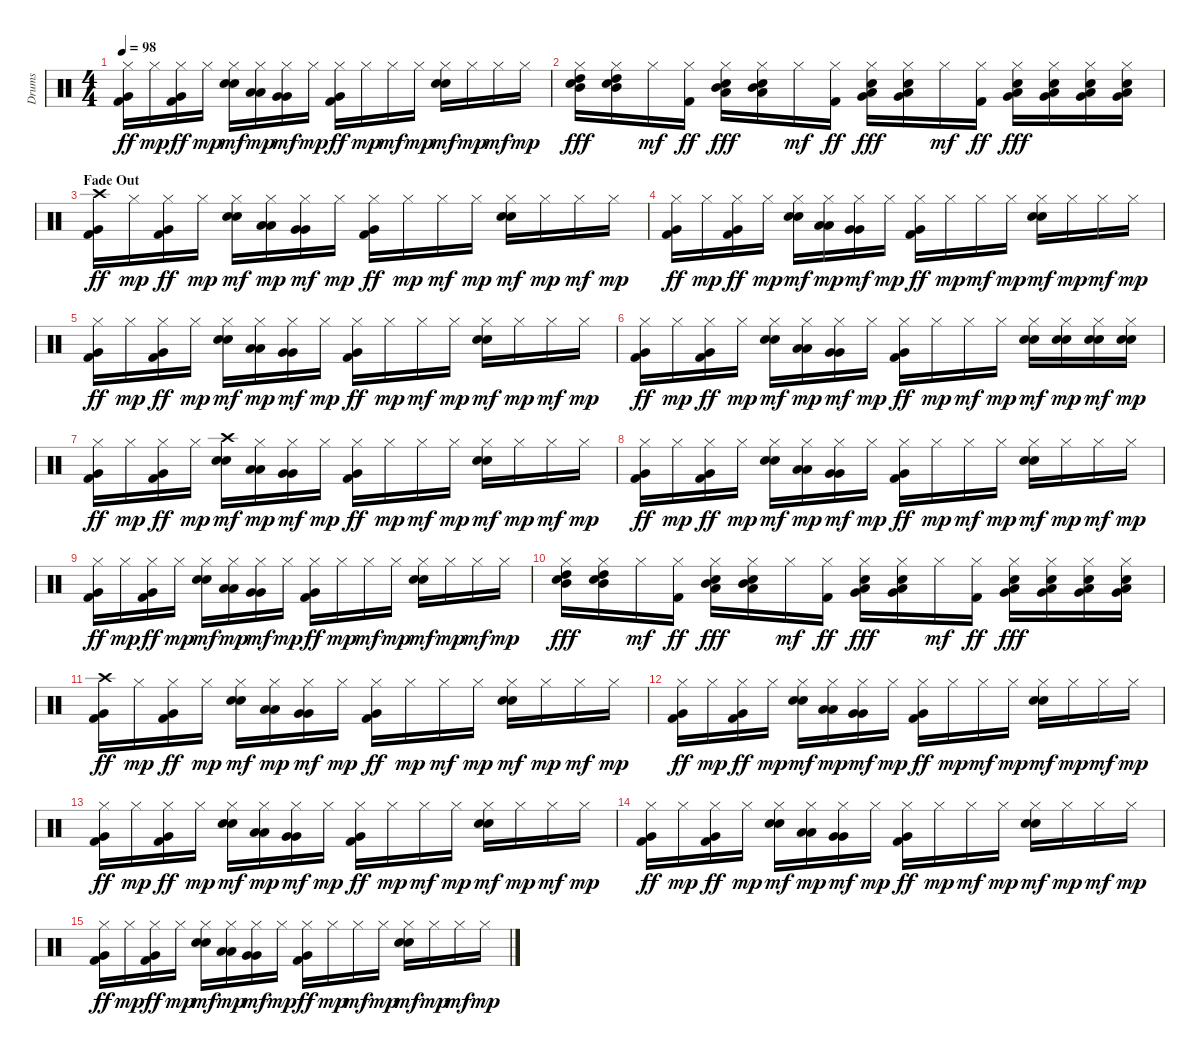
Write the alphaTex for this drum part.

\track ("Drums" "Drums") {instrument percussion}
\staff {score}
\articulation defaults
\ts (4 4)
\tempo 98
\clef neutral
\ks c
("Hi-Hat (closed)" "Very Low Tom (hit)" "Kick (hit) 2").16{dy ff} "Hi-Hat (closed)".16{dy mp} ("Hi-Hat (closed)" "Very Low Tom (hit)" "Kick (hit) 2").16{dy ff} "Hi-Hat (closed)".16{dy mp} ("Hi-Hat (closed)" "Electric Snare (hit)" "Snare (hit) 2").16{dy mf} ("Hi-Hat (closed)" "Low Tom (hit)" "Low Tom (hit)").16{dy mp} ("Hi-Hat (closed)" "Very Low Tom (hit)" "Very Low Tom (hit)").16{dy mf} "Hi-Hat (closed)".16{dy mp} ("Hi-Hat (closed)" "Very Low Tom (hit)" "Kick (hit) 2").16{dy ff} "Hi-Hat (closed)".16{dy mp} "Hi-Hat (closed)".16{dy mf} "Hi-Hat (closed)".16{dy mp} ("Hi-Hat (closed)" "Electric Snare (hit)" "Snare (hit) 2").16{dy mf} "Hi-Hat (closed)".16{dy mp} "Hi-Hat (closed)".16{dy mf} "Hi-Hat (closed)".16{dy mp} |
("Hi-Hat (closed)" "High Tom (hit)" "Mid Tom (hit)" "Electric Snare (hit)").16{dy fff} ("Hi-Hat (closed)" "High Tom (hit)" "Mid Tom (hit)" "Electric Snare (hit)").16 "Hi-Hat (closed)".16{dy mf} ("Hi-Hat (closed)" "Kick (hit) 2").16{dy ff} ("Hi-Hat (closed)" "Mid Tom (hit)" "Low Tom (hit)" "Electric Snare (hit)").16{dy fff} ("Hi-Hat (closed)" "Mid Tom (hit)" "Low Tom (hit)" "Electric Snare (hit)").16 "Hi-Hat (closed)".16{dy mf} ("Hi-Hat (closed)" "Kick (hit) 2").16{dy ff} ("Hi-Hat (closed)" "Low Tom (hit)" "Very Low Tom (hit)" "Electric Snare (hit)").16{dy fff} ("Hi-Hat (closed)" "Low Tom (hit)" "Very Low Tom (hit)" "Electric Snare (hit)").16 "Hi-Hat (closed)".16{dy mf} ("Hi-Hat (closed)" "Kick (hit) 2").16{dy ff} ("Hi-Hat (closed)" "Very Low Tom (hit)" "Low Floor Tom (hit)" "Electric Snare (hit)").16{dy fff} ("Hi-Hat (closed)" "Very Low Tom (hit)" "Low Floor Tom (hit)" "Electric Snare (hit)").16 ("Hi-Hat (closed)" "Very Low Tom (hit)" "Low Floor Tom (hit)" "Electric Snare (hit)").16 ("Hi-Hat (closed)" "Very Low Tom (hit)" "Low Floor Tom (hit)" "Electric Snare (hit)").16 |
\section ("" "Fade Out")
("Crash high (hit)" "Very Low Tom (hit)" "Kick (hit) 2").16{dy ff} "Hi-Hat (closed)".16{dy mp} ("Hi-Hat (closed)" "Very Low Tom (hit)" "Kick (hit) 2").16{dy ff} "Hi-Hat (closed)".16{dy mp} ("Hi-Hat (closed)" "Electric Snare (hit)" "Snare (hit) 2").16{dy mf} ("Hi-Hat (closed)" "Low Tom (hit)" "Low Tom (hit)").16{dy mp} ("Hi-Hat (closed)" "Very Low Tom (hit)" "Very Low Tom (hit)").16{dy mf} "Hi-Hat (closed)".16{dy mp} ("Hi-Hat (closed)" "Very Low Tom (hit)" "Kick (hit) 2").16{dy ff} "Hi-Hat (closed)".16{dy mp} "Hi-Hat (closed)".16{dy mf} "Hi-Hat (closed)".16{dy mp} ("Hi-Hat (closed)" "Electric Snare (hit)" "Snare (hit) 2").16{dy mf} "Hi-Hat (closed)".16{dy mp} "Hi-Hat (closed)".16{dy mf} "Hi-Hat (closed)".16{dy mp} |
("Hi-Hat (closed)" "Very Low Tom (hit)" "Kick (hit) 2").16{dy ff} "Hi-Hat (closed)".16{dy mp} ("Hi-Hat (closed)" "Very Low Tom (hit)" "Kick (hit) 2").16{dy ff} "Hi-Hat (closed)".16{dy mp} ("Hi-Hat (closed)" "Electric Snare (hit)" "Snare (hit) 2").16{dy mf} ("Hi-Hat (closed)" "Low Tom (hit)" "Low Tom (hit)").16{dy mp} ("Hi-Hat (closed)" "Very Low Tom (hit)" "Very Low Tom (hit)").16{dy mf} "Hi-Hat (closed)".16{dy mp} ("Hi-Hat (closed)" "Very Low Tom (hit)" "Kick (hit) 2").16{dy ff} "Hi-Hat (closed)".16{dy mp} "Hi-Hat (closed)".16{dy mf} "Hi-Hat (closed)".16{dy mp} ("Hi-Hat (closed)" "Electric Snare (hit)" "Snare (hit) 2").16{dy mf} "Hi-Hat (closed)".16{dy mp} "Hi-Hat (closed)".16{dy mf} "Hi-Hat (closed)".16{dy mp} |
("Hi-Hat (closed)" "Very Low Tom (hit)" "Kick (hit) 2").16{dy ff} "Hi-Hat (closed)".16{dy mp} ("Hi-Hat (closed)" "Very Low Tom (hit)" "Kick (hit) 2").16{dy ff} "Hi-Hat (closed)".16{dy mp} ("Hi-Hat (closed)" "Electric Snare (hit)" "Snare (hit) 2").16{dy mf} ("Hi-Hat (closed)" "Low Tom (hit)" "Low Tom (hit)").16{dy mp} ("Hi-Hat (closed)" "Very Low Tom (hit)" "Very Low Tom (hit)").16{dy mf} "Hi-Hat (closed)".16{dy mp} ("Hi-Hat (closed)" "Very Low Tom (hit)" "Kick (hit) 2").16{dy ff} "Hi-Hat (closed)".16{dy mp} "Hi-Hat (closed)".16{dy mf} "Hi-Hat (closed)".16{dy mp} ("Hi-Hat (closed)" "Electric Snare (hit)" "Snare (hit) 2").16{dy mf} "Hi-Hat (closed)".16{dy mp} "Hi-Hat (closed)".16{dy mf} "Hi-Hat (closed)".16{dy mp} |
("Hi-Hat (closed)" "Very Low Tom (hit)" "Kick (hit) 2").16{dy ff} "Hi-Hat (closed)".16{dy mp} ("Hi-Hat (closed)" "Very Low Tom (hit)" "Kick (hit) 2").16{dy ff} "Hi-Hat (closed)".16{dy mp} ("Hi-Hat (closed)" "Electric Snare (hit)" "Snare (hit) 2").16{dy mf} ("Hi-Hat (closed)" "Low Tom (hit)" "Low Tom (hit)").16{dy mp} ("Hi-Hat (closed)" "Very Low Tom (hit)" "Very Low Tom (hit)").16{dy mf} "Hi-Hat (closed)".16{dy mp} ("Hi-Hat (closed)" "Very Low Tom (hit)" "Kick (hit) 2").16{dy ff} "Hi-Hat (closed)".16{dy mp} "Hi-Hat (closed)".16{dy mf} "Hi-Hat (closed)".16{dy mp} ("Hi-Hat (closed)" "Electric Snare (hit)" "Snare (hit) 2").16{dy mf} ("Hi-Hat (closed)" "Electric Snare (hit)" "Snare (hit) 2").16{dy mp} ("Hi-Hat (closed)" "Electric Snare (hit)" "Snare (hit) 2").16{dy mf} ("Hi-Hat (closed)" "Electric Snare (hit)" "Snare (hit) 2").16{dy mp} |
("Hi-Hat (closed)" "Very Low Tom (hit)" "Kick (hit) 2").16{dy ff} "Hi-Hat (closed)".16{dy mp} ("Hi-Hat (closed)" "Very Low Tom (hit)" "Kick (hit) 2").16{dy ff} "Hi-Hat (closed)".16{dy mp} ("Crash high (hit)" "Electric Snare (hit)" "Snare (hit) 2").16{dy mf} ("Hi-Hat (closed)" "Low Tom (hit)" "Low Tom (hit)").16{dy mp} ("Hi-Hat (closed)" "Very Low Tom (hit)" "Very Low Tom (hit)").16{dy mf} "Hi-Hat (closed)".16{dy mp} ("Hi-Hat (closed)" "Very Low Tom (hit)" "Kick (hit) 2").16{dy ff} "Hi-Hat (closed)".16{dy mp} "Hi-Hat (closed)".16{dy mf} "Hi-Hat (closed)".16{dy mp} ("Hi-Hat (closed)" "Electric Snare (hit)" "Snare (hit) 2").16{dy mf} "Hi-Hat (closed)".16{dy mp} "Hi-Hat (closed)".16{dy mf} "Hi-Hat (closed)".16{dy mp} |
("Hi-Hat (closed)" "Very Low Tom (hit)" "Kick (hit) 2").16{dy ff} "Hi-Hat (closed)".16{dy mp} ("Hi-Hat (closed)" "Very Low Tom (hit)" "Kick (hit) 2").16{dy ff} "Hi-Hat (closed)".16{dy mp} ("Hi-Hat (closed)" "Electric Snare (hit)" "Snare (hit) 2").16{dy mf} ("Hi-Hat (closed)" "Low Tom (hit)" "Low Tom (hit)").16{dy mp} ("Hi-Hat (closed)" "Very Low Tom (hit)" "Very Low Tom (hit)").16{dy mf} "Hi-Hat (closed)".16{dy mp} ("Hi-Hat (closed)" "Very Low Tom (hit)" "Kick (hit) 2").16{dy ff} "Hi-Hat (closed)".16{dy mp} "Hi-Hat (closed)".16{dy mf} "Hi-Hat (closed)".16{dy mp} ("Hi-Hat (closed)" "Electric Snare (hit)" "Snare (hit) 2").16{dy mf} "Hi-Hat (closed)".16{dy mp} "Hi-Hat (closed)".16{dy mf} "Hi-Hat (closed)".16{dy mp} |
("Hi-Hat (closed)" "Very Low Tom (hit)" "Kick (hit) 2").16{dy ff} "Hi-Hat (closed)".16{dy mp} ("Hi-Hat (closed)" "Very Low Tom (hit)" "Kick (hit) 2").16{dy ff} "Hi-Hat (closed)".16{dy mp} ("Hi-Hat (closed)" "Electric Snare (hit)" "Snare (hit) 2").16{dy mf} ("Hi-Hat (closed)" "Low Tom (hit)" "Low Tom (hit)").16{dy mp} ("Hi-Hat (closed)" "Very Low Tom (hit)" "Very Low Tom (hit)").16{dy mf} "Hi-Hat (closed)".16{dy mp} ("Hi-Hat (closed)" "Very Low Tom (hit)" "Kick (hit) 2").16{dy ff} "Hi-Hat (closed)".16{dy mp} "Hi-Hat (closed)".16{dy mf} "Hi-Hat (closed)".16{dy mp} ("Hi-Hat (closed)" "Electric Snare (hit)" "Snare (hit) 2").16{dy mf} "Hi-Hat (closed)".16{dy mp} "Hi-Hat (closed)".16{dy mf} "Hi-Hat (closed)".16{dy mp} |
("Hi-Hat (closed)" "High Tom (hit)" "Mid Tom (hit)" "Electric Snare (hit)").16{dy fff} ("Hi-Hat (closed)" "High Tom (hit)" "Mid Tom (hit)" "Electric Snare (hit)").16 "Hi-Hat (closed)".16{dy mf} ("Hi-Hat (closed)" "Kick (hit) 2").16{dy ff} ("Hi-Hat (closed)" "Mid Tom (hit)" "Low Tom (hit)" "Electric Snare (hit)").16{dy fff} ("Hi-Hat (closed)" "Mid Tom (hit)" "Low Tom (hit)" "Electric Snare (hit)").16 "Hi-Hat (closed)".16{dy mf} ("Hi-Hat (closed)" "Kick (hit) 2").16{dy ff} ("Hi-Hat (closed)" "Low Tom (hit)" "Very Low Tom (hit)" "Electric Snare (hit)").16{dy fff} ("Hi-Hat (closed)" "Low Tom (hit)" "Very Low Tom (hit)" "Electric Snare (hit)").16 "Hi-Hat (closed)".16{dy mf} ("Hi-Hat (closed)" "Kick (hit) 2").16{dy ff} ("Hi-Hat (closed)" "Very Low Tom (hit)" "Low Floor Tom (hit)" "Electric Snare (hit)").16{dy fff} ("Hi-Hat (closed)" "Very Low Tom (hit)" "Low Floor Tom (hit)" "Electric Snare (hit)").16 ("Hi-Hat (closed)" "Very Low Tom (hit)" "Low Floor Tom (hit)" "Electric Snare (hit)").16 ("Hi-Hat (closed)" "Very Low Tom (hit)" "Low Floor Tom (hit)" "Electric Snare (hit)").16 |
("Crash high (hit)" "Very Low Tom (hit)" "Kick (hit) 2").16{dy ff} "Hi-Hat (closed)".16{dy mp} ("Hi-Hat (closed)" "Very Low Tom (hit)" "Kick (hit) 2").16{dy ff} "Hi-Hat (closed)".16{dy mp} ("Hi-Hat (closed)" "Electric Snare (hit)" "Snare (hit) 2").16{dy mf} ("Hi-Hat (closed)" "Low Tom (hit)" "Low Tom (hit)").16{dy mp} ("Hi-Hat (closed)" "Very Low Tom (hit)" "Very Low Tom (hit)").16{dy mf} "Hi-Hat (closed)".16{dy mp} ("Hi-Hat (closed)" "Very Low Tom (hit)" "Kick (hit) 2").16{dy ff} "Hi-Hat (closed)".16{dy mp} "Hi-Hat (closed)".16{dy mf} "Hi-Hat (closed)".16{dy mp} ("Hi-Hat (closed)" "Electric Snare (hit)" "Snare (hit) 2").16{dy mf} "Hi-Hat (closed)".16{dy mp} "Hi-Hat (closed)".16{dy mf} "Hi-Hat (closed)".16{dy mp} |
("Hi-Hat (closed)" "Very Low Tom (hit)" "Kick (hit) 2").16{dy ff volume 5} "Hi-Hat (closed)".16{dy mp} ("Hi-Hat (closed)" "Very Low Tom (hit)" "Kick (hit) 2").16{dy ff} "Hi-Hat (closed)".16{dy mp} ("Hi-Hat (closed)" "Electric Snare (hit)" "Snare (hit) 2").16{dy mf} ("Hi-Hat (closed)" "Low Tom (hit)" "Low Tom (hit)").16{dy mp} ("Hi-Hat (closed)" "Very Low Tom (hit)" "Very Low Tom (hit)").16{dy mf} "Hi-Hat (closed)".16{dy mp} ("Hi-Hat (closed)" "Very Low Tom (hit)" "Kick (hit) 2").16{dy ff} "Hi-Hat (closed)".16{dy mp} "Hi-Hat (closed)".16{dy mf} "Hi-Hat (closed)".16{dy mp} ("Hi-Hat (closed)" "Electric Snare (hit)" "Snare (hit) 2").16{dy mf} "Hi-Hat (closed)".16{dy mp} "Hi-Hat (closed)".16{dy mf} "Hi-Hat (closed)".16{dy mp} |
("Hi-Hat (closed)" "Very Low Tom (hit)" "Kick (hit) 2").16{dy ff} "Hi-Hat (closed)".16{dy mp} ("Hi-Hat (closed)" "Very Low Tom (hit)" "Kick (hit) 2").16{dy ff} "Hi-Hat (closed)".16{dy mp} ("Hi-Hat (closed)" "Electric Snare (hit)" "Snare (hit) 2").16{dy mf} ("Hi-Hat (closed)" "Low Tom (hit)" "Low Tom (hit)").16{dy mp} ("Hi-Hat (closed)" "Very Low Tom (hit)" "Very Low Tom (hit)").16{dy mf} "Hi-Hat (closed)".16{dy mp} ("Hi-Hat (closed)" "Very Low Tom (hit)" "Kick (hit) 2").16{dy ff} "Hi-Hat (closed)".16{dy mp} "Hi-Hat (closed)".16{dy mf} "Hi-Hat (closed)".16{dy mp} ("Hi-Hat (closed)" "Electric Snare (hit)" "Snare (hit) 2").16{dy mf} "Hi-Hat (closed)".16{dy mp} "Hi-Hat (closed)".16{dy mf} "Hi-Hat (closed)".16{dy mp} |
("Hi-Hat (closed)" "Very Low Tom (hit)" "Kick (hit) 2").16{dy ff volume 0} "Hi-Hat (closed)".16{dy mp} ("Hi-Hat (closed)" "Very Low Tom (hit)" "Kick (hit) 2").16{dy ff} "Hi-Hat (closed)".16{dy mp} ("Hi-Hat (closed)" "Electric Snare (hit)" "Snare (hit) 2").16{dy mf} ("Hi-Hat (closed)" "Low Tom (hit)" "Low Tom (hit)").16{dy mp} ("Hi-Hat (closed)" "Very Low Tom (hit)" "Very Low Tom (hit)").16{dy mf} "Hi-Hat (closed)".16{dy mp} ("Hi-Hat (closed)" "Very Low Tom (hit)" "Kick (hit) 2").16{dy ff} "Hi-Hat (closed)".16{dy mp} "Hi-Hat (closed)".16{dy mf} "Hi-Hat (closed)".16{dy mp} ("Hi-Hat (closed)" "Electric Snare (hit)" "Snare (hit) 2").16{dy mf} "Hi-Hat (closed)".16{dy mp} "Hi-Hat (closed)".16{dy mf} "Hi-Hat (closed)".16{dy mp} |
("Hi-Hat (closed)" "Very Low Tom (hit)" "Kick (hit) 2").16{dy ff} "Hi-Hat (closed)".16{dy mp} ("Hi-Hat (closed)" "Very Low Tom (hit)" "Kick (hit) 2").16{dy ff} "Hi-Hat (closed)".16{dy mp} ("Hi-Hat (closed)" "Electric Snare (hit)" "Snare (hit) 2").16{dy mf} ("Hi-Hat (closed)" "Low Tom (hit)" "Low Tom (hit)").16{dy mp} ("Hi-Hat (closed)" "Very Low Tom (hit)" "Very Low Tom (hit)").16{dy mf} "Hi-Hat (closed)".16{dy mp} ("Hi-Hat (closed)" "Very Low Tom (hit)" "Kick (hit) 2").16{dy ff} "Hi-Hat (closed)".16{dy mp} "Hi-Hat (closed)".16{dy mf} "Hi-Hat (closed)".16{dy mp} ("Hi-Hat (closed)" "Electric Snare (hit)" "Snare (hit) 2").16{dy mf} "Hi-Hat (closed)".16{dy mp} "Hi-Hat (closed)".16{dy mf} "Hi-Hat (closed)".16{dy mp}
